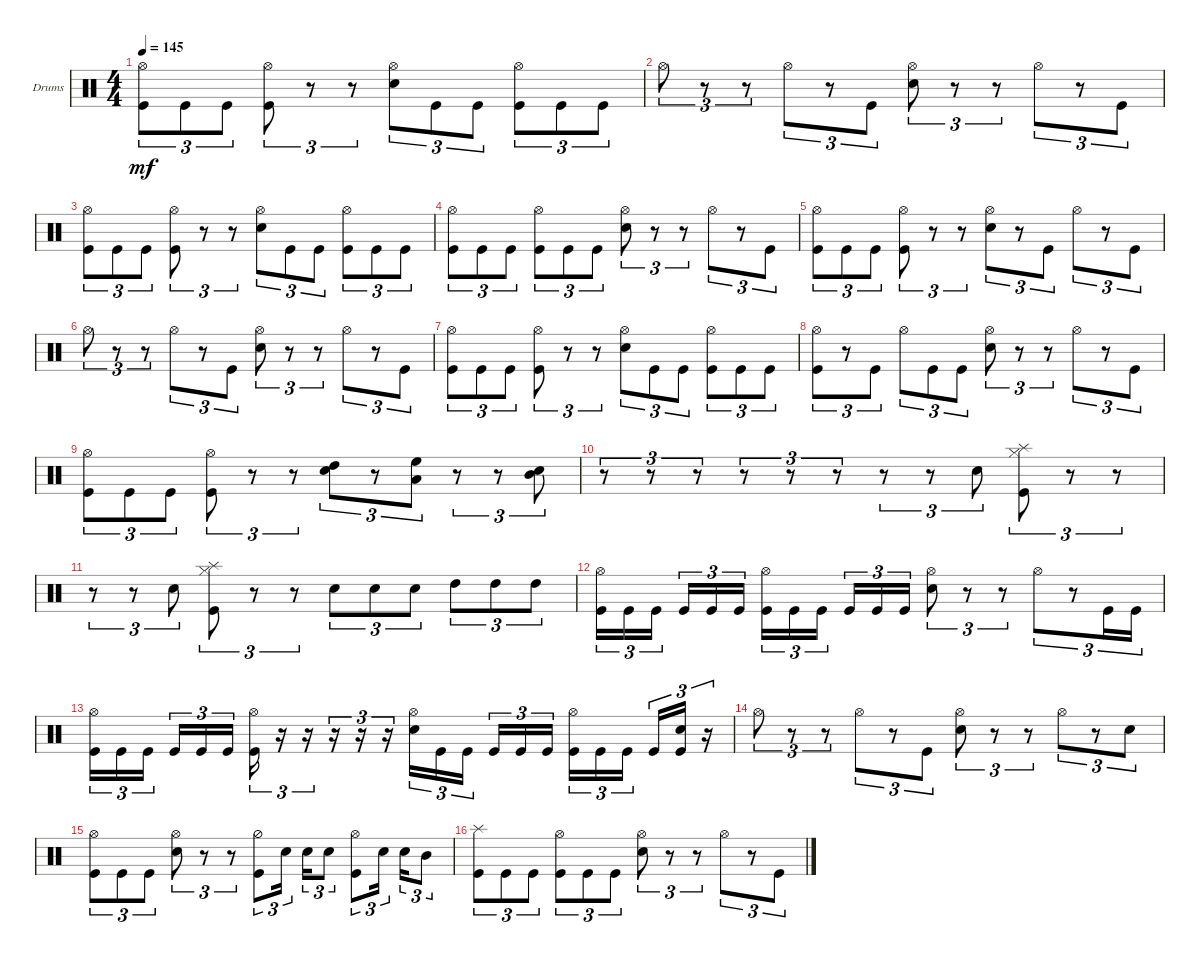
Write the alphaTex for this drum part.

\bracketExtendMode groupsimilarinstruments
\firstSystemTrackNameOrientation horizontal
\otherSystemsTrackNameOrientation horizontal
\track ("Drumkit" "Drums") {instrument percussion}
\staff {score}
\articulation defaults
\ts (4 4)
\tempo 145
\clef neutral
\ks c
("Kick (hit)" "Hi-Hat (open)").8{tu (3 2) dy mf} "Kick (hit)".8{tu (3 2)} "Kick (hit)".8{tu (3 2)} ("Kick (hit)" "Hi-Hat (open)").8{tu (3 2)} r.8{tu (3 2)} r.8{tu (3 2)} ("Snare (hit) 2" "Hi-Hat (open)").8{tu (3 2)} "Kick (hit)".8{tu (3 2)} "Kick (hit)".8{tu (3 2)} ("Kick (hit)" "Hi-Hat (open)").8{tu (3 2)} "Kick (hit)".8{tu (3 2)} "Kick (hit)".8{tu (3 2)} |
"Hi-Hat (open)".8{tu (3 2)} r.8{tu (3 2)} r.8{tu (3 2)} "Hi-Hat (open)".8{tu (3 2)} r.8{tu (3 2)} "Kick (hit)".8{tu (3 2)} ("Snare (hit) 2" "Hi-Hat (open)").8{tu (3 2)} r.8{tu (3 2)} r.8{tu (3 2)} "Hi-Hat (open)".8{tu (3 2)} r.8{tu (3 2)} "Kick (hit)".8{tu (3 2)} |
("Kick (hit)" "Hi-Hat (open)").8{tu (3 2)} "Kick (hit)".8{tu (3 2)} "Kick (hit)".8{tu (3 2)} ("Kick (hit)" "Hi-Hat (open)").8{tu (3 2)} r.8{tu (3 2)} r.8{tu (3 2)} ("Snare (hit) 2" "Hi-Hat (open)").8{tu (3 2)} "Kick (hit)".8{tu (3 2)} "Kick (hit)".8{tu (3 2)} ("Kick (hit)" "Hi-Hat (open)").8{tu (3 2)} "Kick (hit)".8{tu (3 2)} "Kick (hit)".8{tu (3 2)} |
("Kick (hit)" "Hi-Hat (open)").8{tu (3 2)} "Kick (hit)".8{tu (3 2)} "Kick (hit)".8{tu (3 2)} ("Kick (hit)" "Hi-Hat (open)").8{tu (3 2)} "Kick (hit)".8{tu (3 2)} "Kick (hit)".8{tu (3 2)} ("Snare (hit) 2" "Hi-Hat (open)").8{tu (3 2)} r.8{tu (3 2)} r.8{tu (3 2)} "Hi-Hat (open)".8{tu (3 2)} r.8{tu (3 2)} "Kick (hit)".8{tu (3 2)} |
("Kick (hit)" "Hi-Hat (open)").8{tu (3 2)} "Kick (hit)".8{tu (3 2)} "Kick (hit)".8{tu (3 2)} ("Kick (hit)" "Hi-Hat (open)").8{tu (3 2)} r.8{tu (3 2)} r.8{tu (3 2)} ("Snare (hit) 2" "Hi-Hat (open)").8{tu (3 2)} r.8{tu (3 2)} "Kick (hit)".8{tu (3 2)} "Hi-Hat (open)".8{tu (3 2)} r.8{tu (3 2)} "Kick (hit)".8{tu (3 2)} |
"Hi-Hat (open)".8{tu (3 2)} r.8{tu (3 2)} r.8{tu (3 2)} "Hi-Hat (open)".8{tu (3 2)} r.8{tu (3 2)} "Kick (hit)".8{tu (3 2)} ("Snare (hit) 2" "Hi-Hat (open)").8{tu (3 2)} r.8{tu (3 2)} r.8{tu (3 2)} "Hi-Hat (open)".8{tu (3 2)} r.8{tu (3 2)} "Kick (hit)".8{tu (3 2)} |
("Kick (hit)" "Hi-Hat (open)").8{tu (3 2)} "Kick (hit)".8{tu (3 2)} "Kick (hit)".8{tu (3 2)} ("Kick (hit)" "Hi-Hat (open)").8{tu (3 2)} r.8{tu (3 2)} r.8{tu (3 2)} ("Snare (hit) 2" "Hi-Hat (open)").8{tu (3 2)} "Kick (hit)".8{tu (3 2)} "Kick (hit)".8{tu (3 2)} ("Kick (hit)" "Hi-Hat (open)").8{tu (3 2)} "Kick (hit)".8{tu (3 2)} "Kick (hit)".8{tu (3 2)} |
("Kick (hit)" "Hi-Hat (open)").8{tu (3 2)} r.8{tu (3 2)} "Kick (hit)".8{tu (3 2)} "Hi-Hat (open)".8{tu (3 2)} "Kick (hit)".8{tu (3 2)} "Kick (hit)".8{tu (3 2)} ("Snare (hit) 2" "Hi-Hat (open)").8{tu (3 2)} r.8{tu (3 2)} r.8{tu (3 2)} "Hi-Hat (open)".8{tu (3 2)} r.8{tu (3 2)} "Kick (hit)".8{tu (3 2)} |
("Kick (hit)" "Hi-Hat (open)").8{tu (3 2)} "Kick (hit)".8{tu (3 2)} "Kick (hit)".8{tu (3 2)} ("Kick (hit)" "Hi-Hat (open)").8{tu (3 2)} r.8{tu (3 2)} r.8{tu (3 2)} ("Snare (hit) 2" "High Tom (hit)").8{tu (3 2)} r.8{tu (3 2)} ("Low Tom (hit)" "High Floor Tom (hit)").8{tu (3 2)} r.8{tu (3 2)} r.8{tu (3 2)} ("Snare (hit) 2" "Mid Tom (hit)").8{tu (3 2)} |
r.8{tu (3 2)} r.8{tu (3 2)} r.8{tu (3 2)} r.8{tu (3 2)} r.8{tu (3 2)} r.8{tu (3 2)} r.8{tu (3 2)} r.8{tu (3 2)} "Snare (hit) 2".8{tu (3 2)} ("Kick (hit)" "Hi-Hat (closed)" "Splash (hit)").8{tu (3 2)} r.8{tu (3 2)} r.8{tu (3 2)} |
r.8{tu (3 2)} r.8{tu (3 2)} "Snare (hit) 2".8{tu (3 2)} ("Kick (hit)" "Hi-Hat (closed)" "Splash (hit)").8{tu (3 2)} r.8{tu (3 2)} r.8{tu (3 2)} "Snare (hit) 2".8{tu (3 2)} "Snare (hit) 2".8{tu (3 2)} "Snare (hit) 2".8{tu (3 2)} "High Tom (hit)".8{tu (3 2)} "High Tom (hit)".8{tu (3 2)} "High Tom (hit)".8{tu (3 2)} |
("Kick (hit)" "Hi-Hat (open)").16{tu (3 2)} "Kick (hit)".16{tu (3 2)} "Kick (hit)".16{tu (3 2)} "Kick (hit)".16{tu (3 2)} "Kick (hit)".16{tu (3 2)} "Kick (hit)".16{tu (3 2)} ("Kick (hit)" "Hi-Hat (open)").16{tu (3 2)} "Kick (hit)".16{tu (3 2)} "Kick (hit)".16{tu (3 2)} "Kick (hit)".16{tu (3 2)} "Kick (hit)".16{tu (3 2)} "Kick (hit)".16{tu (3 2)} ("Snare (hit) 2" "Hi-Hat (open)").8{tu (3 2)} r.8{tu (3 2)} r.8{tu (3 2)} "Hi-Hat (open)".8{tu (3 2)} r.8{tu (3 2)} "Kick (hit)".16{tu (3 2)} "Kick (hit)".16{tu (3 2)} |
("Kick (hit)" "Hi-Hat (open)").16{tu (3 2)} "Kick (hit)".16{tu (3 2)} "Kick (hit)".16{tu (3 2)} "Kick (hit)".16{tu (3 2)} "Kick (hit)".16{tu (3 2)} "Kick (hit)".16{tu (3 2)} ("Kick (hit)" "Hi-Hat (open)").16{tu (3 2)} r.16{tu (3 2)} r.16{tu (3 2)} r.16{tu (3 2)} r.16{tu (3 2)} r.16{tu (3 2)} ("Snare (hit) 2" "Hi-Hat (open)").16{tu (3 2)} "Kick (hit)".16{tu (3 2)} "Kick (hit)".16{tu (3 2)} "Kick (hit)".16{tu (3 2)} "Kick (hit)".16{tu (3 2)} "Kick (hit)".16{tu (3 2)} ("Kick (hit)" "Hi-Hat (open)").16{tu (3 2)} "Kick (hit)".16{tu (3 2)} "Kick (hit)".16{tu (3 2)} "Kick (hit)".16{tu (3 2)} ("Kick (hit)" "Snare (hit) 2").16{tu (3 2)} r.16{tu (3 2)} |
"Hi-Hat (open)".8{tu (3 2)} r.8{tu (3 2)} r.8{tu (3 2)} "Hi-Hat (open)".8{tu (3 2)} r.8{tu (3 2)} "Kick (hit)".8{tu (3 2)} ("Snare (hit) 2" "Hi-Hat (open)").8{tu (3 2)} r.8{tu (3 2)} r.8{tu (3 2)} "Hi-Hat (open)".8{tu (3 2)} r.8{tu (3 2)} "Snare (hit) 2".8{tu (3 2)} |
("Kick (hit)" "Hi-Hat (open)").8{tu (3 2)} "Kick (hit)".8{tu (3 2)} "Kick (hit)".8{tu (3 2)} ("Snare (hit) 2" "Hi-Hat (open)").8{tu (3 2)} r.8{tu (3 2)} r.8{tu (3 2)} ("Kick (hit)" "Hi-Hat (half)").8{tu (3 2)} "Snare (hit) 2".16{tu (3 2)} "Snare (hit) 2".16{tu (3 2)} "Snare (hit) 2".8{tu (3 2)} ("Kick (hit)" "Hi-Hat (open)").8{tu (3 2)} "Snare (hit) 2".16{tu (3 2)} "Snare (hit) 2".16{tu (3 2)} "Mid Tom (hit)".8{tu (3 2)} |
("Kick (hit)" "Splash (hit)").8{tu (3 2)} "Kick (hit)".8{tu (3 2)} "Kick (hit)".8{tu (3 2)} ("Kick (hit)" "Hi-Hat (open)").8{tu (3 2)} "Kick (hit)".8{tu (3 2)} "Kick (hit)".8{tu (3 2)} ("Snare (hit) 2" "Hi-Hat (open)").8{tu (3 2)} r.8{tu (3 2)} r.8{tu (3 2)} "Hi-Hat (open)".8{tu (3 2)} r.8{tu (3 2)} "Kick (hit)".8{tu (3 2)}
